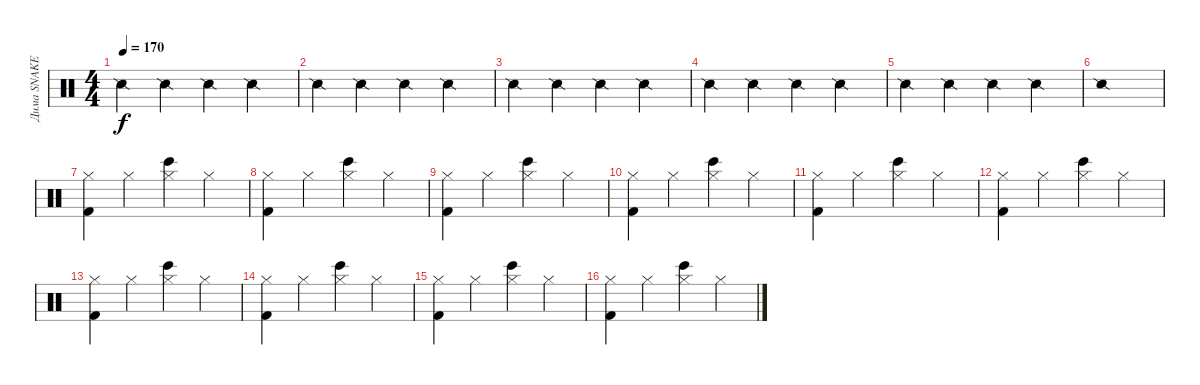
\track ("Дима SNAKE" "Дима SNAKE") {instrument percussion}
\staff {score}
\articulation defaults
\ts (4 4)
\tempo 170
\clef neutral
\ks c "Snare (side stick) 2".4{dy f} "Snare (side stick) 2".4 "Snare (side stick) 2".4 "Snare (side stick) 2".4
|
"Snare (side stick) 2".4 "Snare (side stick) 2".4 "Snare (side stick) 2".4 "Snare (side stick) 2".4 |
"Snare (side stick) 2".4 "Snare (side stick) 2".4 "Snare (side stick) 2".4 "Snare (side stick) 2".4 |
"Snare (side stick) 2".4 "Snare (side stick) 2".4 "Snare (side stick) 2".4 "Snare (side stick) 2".4 |
"Snare (side stick) 2".4 "Snare (side stick) 2".4 "Snare (side stick) 2".4 "Snare (side stick) 2".4 |
"Snare (side stick) 2".1 |
("Hi-Hat (closed)" "Kick (hit) 2").4 "Hi-Hat (closed)".4 ("Hi-Hat (closed)" "Bongo High (hit)").4 "Hi-Hat (closed)".4 |
("Hi-Hat (closed)" "Kick (hit) 2").4 "Hi-Hat (closed)".4 ("Hi-Hat (closed)" "Bongo High (hit)").4 "Hi-Hat (closed)".4 |
("Hi-Hat (closed)" "Kick (hit) 2").4 "Hi-Hat (closed)".4 ("Hi-Hat (closed)" "Bongo High (hit)").4 "Hi-Hat (closed)".4 |
("Hi-Hat (closed)" "Kick (hit) 2").4 "Hi-Hat (closed)".4 ("Hi-Hat (closed)" "Bongo High (hit)").4 "Hi-Hat (closed)".4 |
("Hi-Hat (closed)" "Kick (hit) 2").4 "Hi-Hat (closed)".4 ("Hi-Hat (closed)" "Bongo High (hit)").4 "Hi-Hat (closed)".4 |
("Hi-Hat (closed)" "Kick (hit) 2").4 "Hi-Hat (closed)".4 ("Hi-Hat (closed)" "Bongo High (hit)").4 "Hi-Hat (closed)".4 |
("Hi-Hat (closed)" "Kick (hit) 2").4 "Hi-Hat (closed)".4 ("Hi-Hat (closed)" "Bongo High (hit)").4 "Hi-Hat (closed)".4 |
("Hi-Hat (closed)" "Kick (hit) 2").4 "Hi-Hat (closed)".4 ("Hi-Hat (closed)" "Bongo High (hit)").4 "Hi-Hat (closed)".4 |
("Hi-Hat (closed)" "Kick (hit) 2").4 "Hi-Hat (closed)".4 ("Hi-Hat (closed)" "Bongo High (hit)").4 "Hi-Hat (closed)".4 |
("Hi-Hat (closed)" "Kick (hit) 2").4 "Hi-Hat (closed)".4 ("Hi-Hat (closed)" "Bongo High (hit)").4 "Hi-Hat (closed)".4
